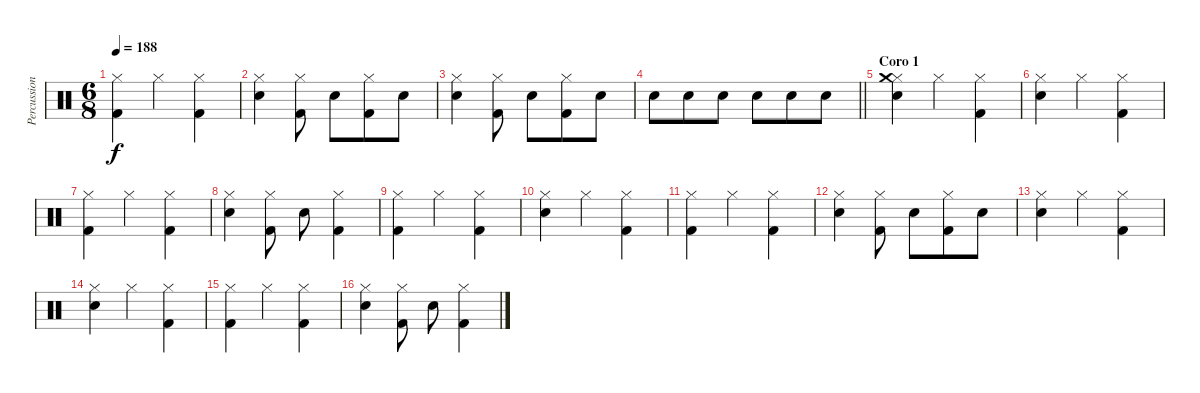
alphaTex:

\track ("Percussion" "Percussion") {instrument percussion}
\staff {score}
\articulation defaults
\ts (6 8)
\tempo 188
\clef neutral
\ks c
("Hi-Hat (closed)" "Kick (hit) 2").4{dy f} "Hi-Hat (closed)".4 ("Hi-Hat (closed)" "Kick (hit) 2").4 |
("Hi-Hat (closed)" "Snare (hit) 2").4 ("Hi-Hat (closed)" "Kick (hit) 2").8 "Electric Snare (hit)".8 ("Hi-Hat (closed)" "Kick (hit) 2").8 "Electric Snare (hit)".8 |
("Hi-Hat (closed)" "Snare (hit) 2").4 ("Hi-Hat (closed)" "Kick (hit) 2").8 "Electric Snare (hit)".8 ("Hi-Hat (closed)" "Kick (hit) 2").8 "Electric Snare (hit)".8 |
\barLineRight lightlight "Snare (hit) 2".8 "Snare (hit) 2".8 "Snare (hit) 2".8 "Snare (hit) 2".8 "Snare (hit) 2".8 "Snare (hit) 2".8
|
\section ("" "Coro 1")
("Hi-Hat (closed)" "Crash medium (hit)" "Snare (hit) 2").4 "Hi-Hat (closed)".4 ("Hi-Hat (closed)" "Kick (hit) 2").4 |
("Hi-Hat (closed)" "Snare (hit) 2").4 "Hi-Hat (closed)".4 ("Hi-Hat (closed)" "Kick (hit) 2").4 |
("Hi-Hat (closed)" "Kick (hit) 2").4 "Hi-Hat (closed)".4 ("Hi-Hat (closed)" "Kick (hit) 2").4 |
("Hi-Hat (closed)" "Snare (hit) 2").4 ("Hi-Hat (closed)" "Kick (hit) 2").8 "Electric Snare (hit)".8 ("Hi-Hat (closed)" "Kick (hit) 2").4 |
("Hi-Hat (closed)" "Kick (hit) 2").4 "Hi-Hat (closed)".4 ("Hi-Hat (closed)" "Kick (hit) 2").4 |
("Hi-Hat (closed)" "Snare (hit) 2").4 "Hi-Hat (closed)".4 ("Hi-Hat (closed)" "Kick (hit) 2").4 |
("Hi-Hat (closed)" "Kick (hit) 2").4 "Hi-Hat (closed)".4 ("Hi-Hat (closed)" "Kick (hit) 2").4 |
("Hi-Hat (closed)" "Snare (hit) 2").4 ("Hi-Hat (closed)" "Kick (hit) 2").8 "Electric Snare (hit)".8 ("Hi-Hat (closed)" "Kick (hit) 2").8 "Electric Snare (hit)".8 |
("Hi-Hat (closed)" "Snare (hit) 2").4 "Hi-Hat (closed)".4 ("Hi-Hat (closed)" "Kick (hit) 2").4 |
("Hi-Hat (closed)" "Snare (hit) 2").4 "Hi-Hat (closed)".4 ("Hi-Hat (closed)" "Kick (hit) 2").4 |
("Hi-Hat (closed)" "Kick (hit) 2").4 "Hi-Hat (closed)".4 ("Hi-Hat (closed)" "Kick (hit) 2").4 |
("Hi-Hat (closed)" "Snare (hit) 2").4 ("Hi-Hat (closed)" "Kick (hit) 2").8 "Electric Snare (hit)".8 ("Hi-Hat (closed)" "Kick (hit) 2").4
